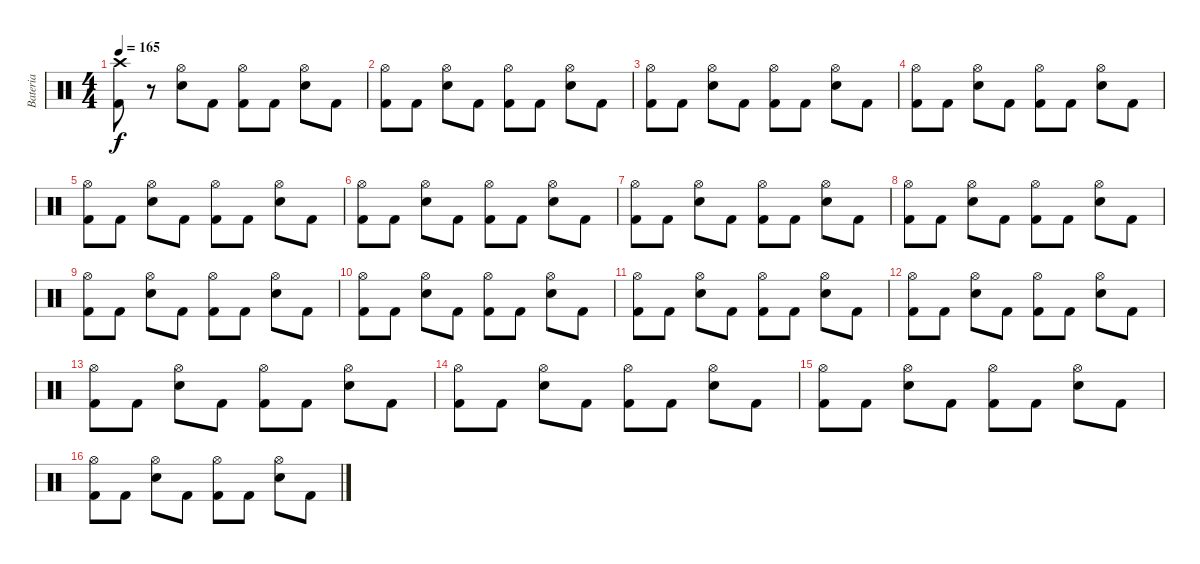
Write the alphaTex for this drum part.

\track ("Bateria" "Bateria") {instrument percussion}
\staff {score}
\articulation defaults
\ts (4 4)
\tempo 165
\clef neutral
\ks c
("Crash high (hit)" "Kick (hit) 2").8{dy f} r.8 ("Hi-Hat (open)" "Snare (hit) 2").8 "Kick (hit) 2".8 ("Hi-Hat (open)" "Kick (hit) 2").8 "Kick (hit) 2".8 ("Hi-Hat (open)" "Snare (hit) 2").8 "Kick (hit) 2".8 |
("Hi-Hat (open)" "Kick (hit) 2").8 "Kick (hit) 2".8 ("Hi-Hat (open)" "Snare (hit) 2").8 "Kick (hit) 2".8 ("Hi-Hat (open)" "Kick (hit) 2").8 "Kick (hit) 2".8 ("Hi-Hat (open)" "Snare (hit) 2").8 "Kick (hit) 2".8 |
("Hi-Hat (open)" "Kick (hit) 2").8 "Kick (hit) 2".8 ("Hi-Hat (open)" "Snare (hit) 2").8 "Kick (hit) 2".8 ("Hi-Hat (open)" "Kick (hit) 2").8 "Kick (hit) 2".8 ("Hi-Hat (open)" "Snare (hit) 2").8 "Kick (hit) 2".8 |
("Hi-Hat (open)" "Kick (hit) 2").8 "Kick (hit) 2".8 ("Hi-Hat (open)" "Snare (hit) 2").8 "Kick (hit) 2".8 ("Hi-Hat (open)" "Kick (hit) 2").8 "Kick (hit) 2".8 ("Hi-Hat (open)" "Snare (hit) 2").8 "Kick (hit) 2".8 |
("Hi-Hat (open)" "Kick (hit) 2").8 "Kick (hit) 2".8 ("Hi-Hat (open)" "Snare (hit) 2").8 "Kick (hit) 2".8 ("Hi-Hat (open)" "Kick (hit) 2").8 "Kick (hit) 2".8 ("Hi-Hat (open)" "Snare (hit) 2").8 "Kick (hit) 2".8 |
("Hi-Hat (open)" "Kick (hit) 2").8 "Kick (hit) 2".8 ("Hi-Hat (open)" "Snare (hit) 2").8 "Kick (hit) 2".8 ("Hi-Hat (open)" "Kick (hit) 2").8 "Kick (hit) 2".8 ("Hi-Hat (open)" "Snare (hit) 2").8 "Kick (hit) 2".8 |
("Hi-Hat (open)" "Kick (hit) 2").8 "Kick (hit) 2".8 ("Hi-Hat (open)" "Snare (hit) 2").8 "Kick (hit) 2".8 ("Hi-Hat (open)" "Kick (hit) 2").8 "Kick (hit) 2".8 ("Hi-Hat (open)" "Snare (hit) 2").8 "Kick (hit) 2".8 |
("Hi-Hat (open)" "Kick (hit) 2").8 "Kick (hit) 2".8 ("Hi-Hat (open)" "Snare (hit) 2").8 "Kick (hit) 2".8 ("Hi-Hat (open)" "Kick (hit) 2").8 "Kick (hit) 2".8 ("Hi-Hat (open)" "Snare (hit) 2").8 "Kick (hit) 2".8 |
("Hi-Hat (open)" "Kick (hit) 2").8 "Kick (hit) 2".8 ("Hi-Hat (open)" "Snare (hit) 2").8 "Kick (hit) 2".8 ("Hi-Hat (open)" "Kick (hit) 2").8 "Kick (hit) 2".8 ("Hi-Hat (open)" "Snare (hit) 2").8 "Kick (hit) 2".8 |
("Hi-Hat (open)" "Kick (hit) 2").8 "Kick (hit) 2".8 ("Hi-Hat (open)" "Snare (hit) 2").8 "Kick (hit) 2".8 ("Hi-Hat (open)" "Kick (hit) 2").8 "Kick (hit) 2".8 ("Hi-Hat (open)" "Snare (hit) 2").8 "Kick (hit) 2".8 |
("Hi-Hat (open)" "Kick (hit) 2").8 "Kick (hit) 2".8 ("Hi-Hat (open)" "Snare (hit) 2").8 "Kick (hit) 2".8 ("Hi-Hat (open)" "Kick (hit) 2").8 "Kick (hit) 2".8 ("Hi-Hat (open)" "Snare (hit) 2").8 "Kick (hit) 2".8 |
("Hi-Hat (open)" "Kick (hit) 2").8 "Kick (hit) 2".8 ("Hi-Hat (open)" "Snare (hit) 2").8 "Kick (hit) 2".8 ("Hi-Hat (open)" "Kick (hit) 2").8 "Kick (hit) 2".8 ("Hi-Hat (open)" "Snare (hit) 2").8 "Kick (hit) 2".8 |
("Hi-Hat (open)" "Kick (hit) 2").8 "Kick (hit) 2".8 ("Hi-Hat (open)" "Snare (hit) 2").8 "Kick (hit) 2".8 ("Hi-Hat (open)" "Kick (hit) 2").8 "Kick (hit) 2".8 ("Hi-Hat (open)" "Snare (hit) 2").8 "Kick (hit) 2".8 |
("Hi-Hat (open)" "Kick (hit) 2").8 "Kick (hit) 2".8 ("Hi-Hat (open)" "Snare (hit) 2").8 "Kick (hit) 2".8 ("Hi-Hat (open)" "Kick (hit) 2").8 "Kick (hit) 2".8 ("Hi-Hat (open)" "Snare (hit) 2").8 "Kick (hit) 2".8 |
("Hi-Hat (open)" "Kick (hit) 2").8 "Kick (hit) 2".8 ("Hi-Hat (open)" "Snare (hit) 2").8 "Kick (hit) 2".8 ("Hi-Hat (open)" "Kick (hit) 2").8 "Kick (hit) 2".8 ("Hi-Hat (open)" "Snare (hit) 2").8 "Kick (hit) 2".8 |
("Hi-Hat (open)" "Kick (hit) 2").8 "Kick (hit) 2".8 ("Hi-Hat (open)" "Snare (hit) 2").8 "Kick (hit) 2".8 ("Hi-Hat (open)" "Kick (hit) 2").8 "Kick (hit) 2".8 ("Hi-Hat (open)" "Snare (hit) 2").8 "Kick (hit) 2".8
